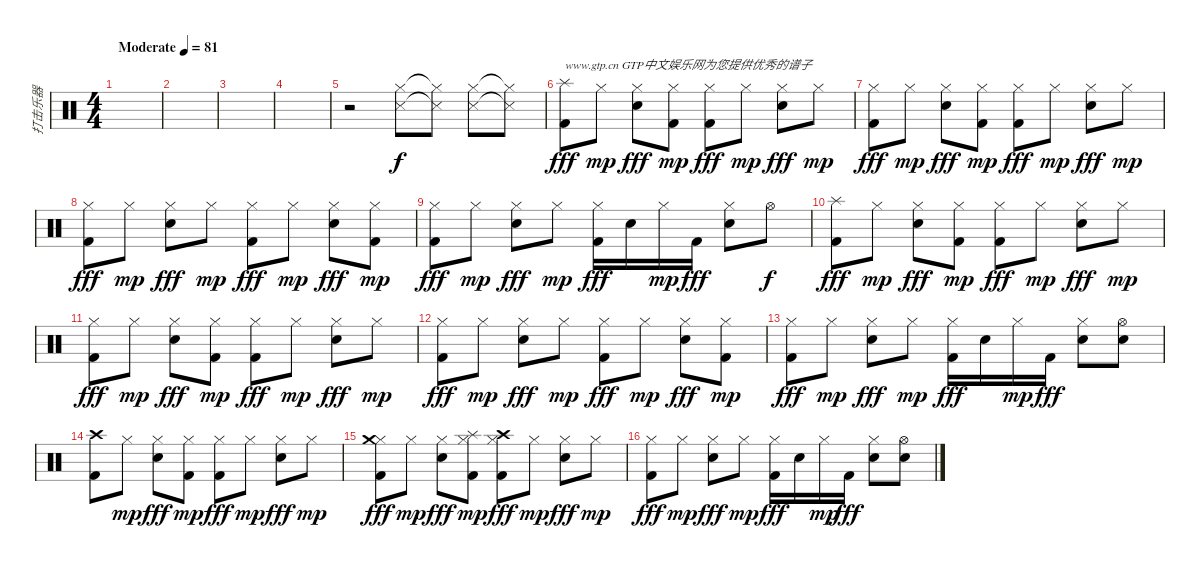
\track ("打击乐器" "打击乐器") {instrument percussion}
\staff {score}
\articulation defaults
\ts (4 4)
\tempo (81 "Moderate")
\clef neutral
\ks c
|
|
|
|
r.2 ("Hi-Hat (closed)" "Snare (side stick) 3").8 ("Hi-Hat (closed)"{t} "Snare (side stick) 3"{t}).8 ("Hi-Hat (closed)" "Snare (side stick) 3").8 ("Hi-Hat (closed)"{t} "Snare (side stick) 3"{t}).8 |
("Splash (hit)" "Kick (hit) 2").8{txt "www.gtp.cn GTP中文娱乐网为您提供优秀的谱子" dy fff} "Hi-Hat (closed)".8{dy mp} ("Hi-Hat (closed)" "Electric Snare (hit)").8{dy fff} ("Hi-Hat (closed)" "Kick (hit) 2").8{dy mp} ("Hi-Hat (closed)" "Kick (hit) 2").8{dy fff} "Hi-Hat (closed)".8{dy mp} ("Hi-Hat (closed)" "Electric Snare (hit)").8{dy fff} "Hi-Hat (closed)".8{dy mp} |
("Hi-Hat (closed)" "Kick (hit) 2").8{dy fff} "Hi-Hat (closed)".8{dy mp} ("Hi-Hat (closed)" "Electric Snare (hit)").8{dy fff} ("Hi-Hat (closed)" "Kick (hit) 2").8{dy mp} ("Hi-Hat (closed)" "Kick (hit) 2").8{dy fff} "Hi-Hat (closed)".8{dy mp} ("Hi-Hat (closed)" "Electric Snare (hit)").8{dy fff} "Hi-Hat (closed)".8{dy mp} |
("Hi-Hat (closed)" "Kick (hit) 2").8{dy fff} "Hi-Hat (closed)".8{dy mp} ("Hi-Hat (closed)" "Electric Snare (hit)").8{dy fff} "Hi-Hat (closed)".8{dy mp} ("Hi-Hat (closed)" "Kick (hit) 2").8{dy fff} "Hi-Hat (closed)".8{dy mp} ("Hi-Hat (closed)" "Electric Snare (hit)").8{dy fff} ("Hi-Hat (closed)" "Kick (hit) 2").8{dy mp} |
("Hi-Hat (closed)" "Kick (hit) 2").8{dy fff} "Hi-Hat (closed)".8{dy mp} ("Hi-Hat (closed)" "Electric Snare (hit)").8{dy fff} "Hi-Hat (closed)".8{dy mp} ("Hi-Hat (closed)" "Kick (hit) 2").16{dy fff} "Electric Snare (hit)".16 "Hi-Hat (closed)".16{dy mp} "Kick (hit) 2".16{dy fff} ("Hi-Hat (closed)" "Electric Snare (hit)").8 "Hi-Hat (open)".8{dy f} |
("Splash (hit)" "Kick (hit) 2").8{dy fff} "Hi-Hat (closed)".8{dy mp} ("Hi-Hat (closed)" "Electric Snare (hit)").8{dy fff} ("Hi-Hat (closed)" "Kick (hit) 2").8{dy mp} ("Hi-Hat (closed)" "Kick (hit) 2").8{dy fff} "Hi-Hat (closed)".8{dy mp} ("Hi-Hat (closed)" "Electric Snare (hit)").8{dy fff} "Hi-Hat (closed)".8{dy mp} |
("Hi-Hat (closed)" "Kick (hit) 2").8{dy fff} "Hi-Hat (closed)".8{dy mp} ("Hi-Hat (closed)" "Electric Snare (hit)").8{dy fff} ("Hi-Hat (closed)" "Kick (hit) 2").8{dy mp} ("Hi-Hat (closed)" "Kick (hit) 2").8{dy fff} "Hi-Hat (closed)".8{dy mp} ("Hi-Hat (closed)" "Electric Snare (hit)").8{dy fff} "Hi-Hat (closed)".8{dy mp} |
("Hi-Hat (closed)" "Kick (hit) 2").8{dy fff} "Hi-Hat (closed)".8{dy mp} ("Hi-Hat (closed)" "Electric Snare (hit)").8{dy fff} "Hi-Hat (closed)".8{dy mp} ("Hi-Hat (closed)" "Kick (hit) 2").8{dy fff} "Hi-Hat (closed)".8{dy mp} ("Hi-Hat (closed)" "Electric Snare (hit)").8{dy fff} ("Hi-Hat (closed)" "Kick (hit) 2").8{dy mp} |
("Hi-Hat (closed)" "Kick (hit) 2").8{dy fff} "Hi-Hat (closed)".8{dy mp} ("Hi-Hat (closed)" "Electric Snare (hit)").8{dy fff} "Hi-Hat (closed)".8{dy mp} ("Hi-Hat (closed)" "Kick (hit) 2").16{dy fff} "Electric Snare (hit)".16 "Hi-Hat (closed)".16{dy mp} "Kick (hit) 2".16{dy fff} ("Hi-Hat (closed)" "Electric Snare (hit)").8 ("Hi-Hat (open)" "Electric Snare (hit)").8 |
("Crash high (hit)" "Kick (hit) 2").8 "Hi-Hat (closed)".8{dy mp} ("Hi-Hat (closed)" "Electric Snare (hit)").8{dy fff} ("Hi-Hat (closed)" "Kick (hit) 2").8{dy mp} ("Hi-Hat (closed)" "Kick (hit) 2").8{dy fff} "Hi-Hat (closed)".8{dy mp} ("Hi-Hat (closed)" "Electric Snare (hit)").8{dy fff} "Hi-Hat (closed)".8{dy mp} |
("Hi-Hat (closed)" "Crash medium (hit)" "Kick (hit) 2").8{dy fff} "Hi-Hat (closed)".8{dy mp} ("Hi-Hat (closed)" "Electric Snare (hit)").8{dy fff} ("Hi-Hat (closed)" "Splash (hit)" "Kick (hit) 2").8{dy mp} ("Hi-Hat (closed)" "Crash high (hit)" "Kick (hit) 2").8{dy fff} "Hi-Hat (closed)".8{dy mp} ("Hi-Hat (closed)" "Electric Snare (hit)").8{dy fff} "Hi-Hat (closed)".8{dy mp} |
("Hi-Hat (closed)" "Kick (hit) 2").8{dy fff} "Hi-Hat (closed)".8{dy mp} ("Hi-Hat (closed)" "Electric Snare (hit)").8{dy fff} "Hi-Hat (closed)".8{dy mp} ("Hi-Hat (closed)" "Kick (hit) 2").16{dy fff} "Electric Snare (hit)".16 "Hi-Hat (closed)".16{dy mp} "Kick (hit) 2".16{dy fff} ("Hi-Hat (closed)" "Electric Snare (hit)").8 ("Hi-Hat (open)" "Electric Snare (hit)").8
